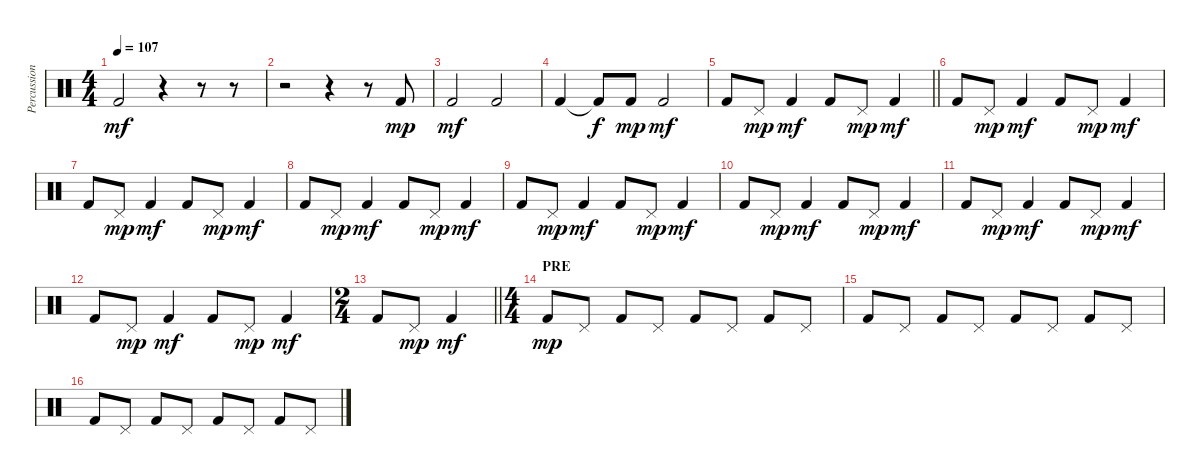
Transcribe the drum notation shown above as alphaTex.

\track ("Percussion" "Percussion") {instrument percussion}
\staff {score}
\articulation defaults
\ts (4 4)
\tempo 107
\clef neutral
\ks c "Kick (hit) 2".2{dy mf}
r.4 r.8 r.8 |
r.2 r.4 r.8 "Kick (hit) 2".8{dy mp} |
"Kick (hit) 2".2{dy mf} "Kick (hit) 2".2 |
"Kick (hit) 2".4 "Kick (hit) 2"{t}.8{dy f} "Kick (hit) 2".8{dy mp} "Kick (hit) 2".2{dy mf} |
\barLineRight lightlight "Kick (hit) 2".8 "Pedal Hi-Hat (hit)".8{dy mp} "Kick (hit) 2".4{dy mf} "Kick (hit) 2".8 "Pedal Hi-Hat (hit)".8{dy mp} "Kick (hit) 2".4{dy mf}
|
"Kick (hit) 2".8 "Pedal Hi-Hat (hit)".8{dy mp} "Kick (hit) 2".4{dy mf} "Kick (hit) 2".8 "Pedal Hi-Hat (hit)".8{dy mp} "Kick (hit) 2".4{dy mf} |
"Kick (hit) 2".8 "Pedal Hi-Hat (hit)".8{dy mp} "Kick (hit) 2".4{dy mf} "Kick (hit) 2".8 "Pedal Hi-Hat (hit)".8{dy mp} "Kick (hit) 2".4{dy mf} |
"Kick (hit) 2".8 "Pedal Hi-Hat (hit)".8{dy mp} "Kick (hit) 2".4{dy mf} "Kick (hit) 2".8 "Pedal Hi-Hat (hit)".8{dy mp} "Kick (hit) 2".4{dy mf} |
"Kick (hit) 2".8 "Pedal Hi-Hat (hit)".8{dy mp} "Kick (hit) 2".4{dy mf} "Kick (hit) 2".8 "Pedal Hi-Hat (hit)".8{dy mp} "Kick (hit) 2".4{dy mf} |
"Kick (hit) 2".8 "Pedal Hi-Hat (hit)".8{dy mp} "Kick (hit) 2".4{dy mf} "Kick (hit) 2".8 "Pedal Hi-Hat (hit)".8{dy mp} "Kick (hit) 2".4{dy mf} |
"Kick (hit) 2".8 "Pedal Hi-Hat (hit)".8{dy mp} "Kick (hit) 2".4{dy mf} "Kick (hit) 2".8 "Pedal Hi-Hat (hit)".8{dy mp} "Kick (hit) 2".4{dy mf} |
"Kick (hit) 2".8 "Pedal Hi-Hat (hit)".8{dy mp} "Kick (hit) 2".4{dy mf} "Kick (hit) 2".8 "Pedal Hi-Hat (hit)".8{dy mp} "Kick (hit) 2".4{dy mf} |
\ts (2 4)
\barLineRight lightlight "Kick (hit) 2".8 "Pedal Hi-Hat (hit)".8{dy mp} "Kick (hit) 2".4{dy mf}
|
\ts (4 4)
\section ("" "PRE")
"Kick (hit) 2".8{dy mp} "Pedal Hi-Hat (hit)".8 "Kick (hit) 2".8 "Pedal Hi-Hat (hit)".8 "Kick (hit) 2".8 "Pedal Hi-Hat (hit)".8 "Kick (hit) 2".8 "Pedal Hi-Hat (hit)".8 |
"Kick (hit) 2".8 "Pedal Hi-Hat (hit)".8 "Kick (hit) 2".8 "Pedal Hi-Hat (hit)".8 "Kick (hit) 2".8 "Pedal Hi-Hat (hit)".8 "Kick (hit) 2".8 "Pedal Hi-Hat (hit)".8 |
"Kick (hit) 2".8 "Pedal Hi-Hat (hit)".8 "Kick (hit) 2".8 "Pedal Hi-Hat (hit)".8 "Kick (hit) 2".8 "Pedal Hi-Hat (hit)".8 "Kick (hit) 2".8 "Pedal Hi-Hat (hit)".8
